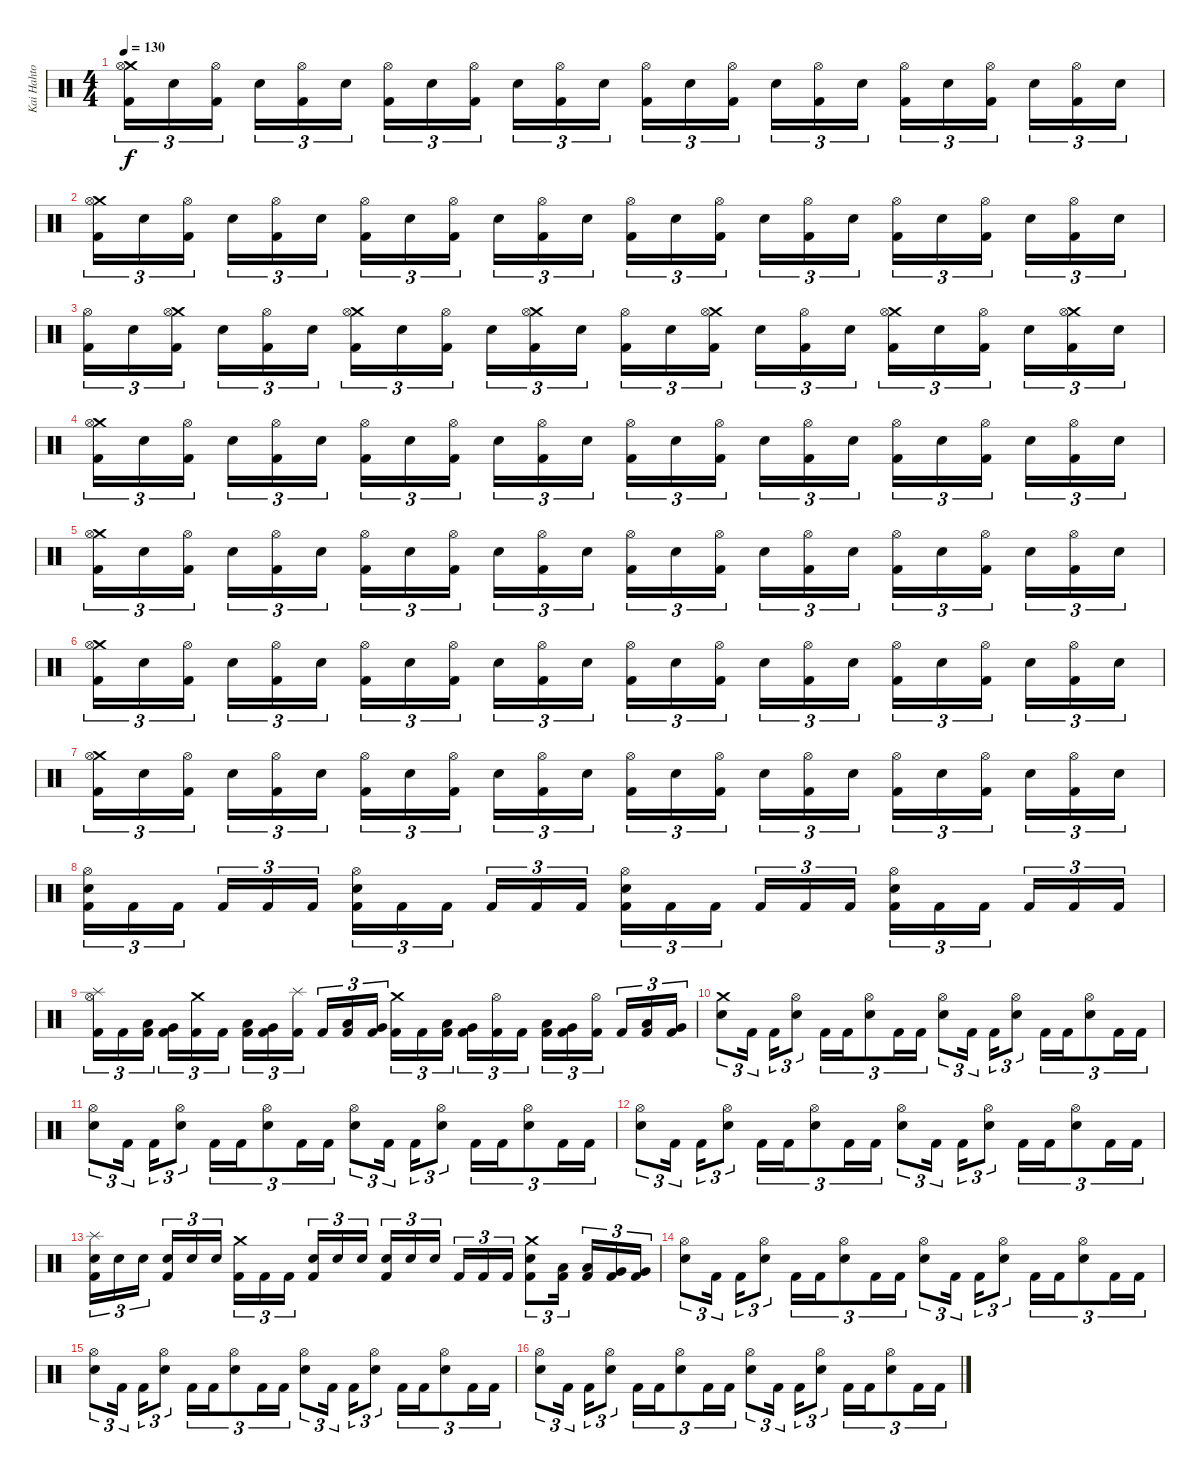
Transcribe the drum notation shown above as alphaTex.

\track ("Kai Hahto" "Kai Hahto") {instrument percussion}
\staff {score}
\articulation defaults
\ts (4 4)
\tempo 130
\clef neutral
\ks c
("Crash medium (hit)" "Hi-Hat (open)" "Kick (hit) 2").16{tu (3 2) dy f} "Snare (hit) 2".16{tu (3 2)} ("Hi-Hat (open)" "Kick (hit) 2").16{tu (3 2) beam splitsecondary} "Snare (hit) 2".16{tu (3 2)} ("Hi-Hat (open)" "Kick (hit) 2").16{tu (3 2)} "Snare (hit) 2".16{tu (3 2)} ("Hi-Hat (open)" "Kick (hit) 2").16{tu (3 2)} "Snare (hit) 2".16{tu (3 2)} ("Hi-Hat (open)" "Kick (hit) 2").16{tu (3 2) beam splitsecondary} "Snare (hit) 2".16{tu (3 2)} ("Hi-Hat (open)" "Kick (hit) 2").16{tu (3 2)} "Snare (hit) 2".16{tu (3 2)} ("Hi-Hat (open)" "Kick (hit) 2").16{tu (3 2)} "Snare (hit) 2".16{tu (3 2)} ("Hi-Hat (open)" "Kick (hit) 2").16{tu (3 2) beam splitsecondary} "Snare (hit) 2".16{tu (3 2)} ("Hi-Hat (open)" "Kick (hit) 2").16{tu (3 2)} "Snare (hit) 2".16{tu (3 2)} ("Hi-Hat (open)" "Kick (hit) 2").16{tu (3 2)} "Snare (hit) 2".16{tu (3 2)} ("Hi-Hat (open)" "Kick (hit) 2").16{tu (3 2) beam splitsecondary} "Snare (hit) 2".16{tu (3 2)} ("Hi-Hat (open)" "Kick (hit) 2").16{tu (3 2)} "Snare (hit) 2".16{tu (3 2)} |
("Crash medium (hit)" "Hi-Hat (open)" "Kick (hit) 2").16{tu (3 2)} "Snare (hit) 2".16{tu (3 2)} ("Hi-Hat (open)" "Kick (hit) 2").16{tu (3 2) beam splitsecondary} "Snare (hit) 2".16{tu (3 2)} ("Hi-Hat (open)" "Kick (hit) 2").16{tu (3 2)} "Snare (hit) 2".16{tu (3 2)} ("Hi-Hat (open)" "Kick (hit) 2").16{tu (3 2)} "Snare (hit) 2".16{tu (3 2)} ("Hi-Hat (open)" "Kick (hit) 2").16{tu (3 2) beam splitsecondary} "Snare (hit) 2".16{tu (3 2)} ("Hi-Hat (open)" "Kick (hit) 2").16{tu (3 2)} "Snare (hit) 2".16{tu (3 2)} ("Hi-Hat (open)" "Kick (hit) 2").16{tu (3 2)} "Snare (hit) 2".16{tu (3 2)} ("Hi-Hat (open)" "Kick (hit) 2").16{tu (3 2) beam splitsecondary} "Snare (hit) 2".16{tu (3 2)} ("Hi-Hat (open)" "Kick (hit) 2").16{tu (3 2)} "Snare (hit) 2".16{tu (3 2)} ("Hi-Hat (open)" "Kick (hit) 2").16{tu (3 2)} "Snare (hit) 2".16{tu (3 2)} ("Hi-Hat (open)" "Kick (hit) 2").16{tu (3 2) beam splitsecondary} "Snare (hit) 2".16{tu (3 2)} ("Hi-Hat (open)" "Kick (hit) 2").16{tu (3 2)} "Snare (hit) 2".16{tu (3 2)} |
("Hi-Hat (open)" "Kick (hit) 2").16{tu (3 2)} "Snare (hit) 2".16{tu (3 2)} ("Crash medium (hit)" "Hi-Hat (open)" "Kick (hit) 2").16{tu (3 2) beam splitsecondary} "Snare (hit) 2".16{tu (3 2)} ("Hi-Hat (open)" "Kick (hit) 2").16{tu (3 2)} "Snare (hit) 2".16{tu (3 2)} ("Crash medium (hit)" "Hi-Hat (open)" "Kick (hit) 2").16{tu (3 2)} "Snare (hit) 2".16{tu (3 2)} ("Hi-Hat (open)" "Kick (hit) 2").16{tu (3 2) beam splitsecondary} "Snare (hit) 2".16{tu (3 2)} ("Crash medium (hit)" "Hi-Hat (open)" "Kick (hit) 2").16{tu (3 2)} "Snare (hit) 2".16{tu (3 2)} ("Hi-Hat (open)" "Kick (hit) 2").16{tu (3 2)} "Snare (hit) 2".16{tu (3 2)} ("Crash medium (hit)" "Hi-Hat (open)" "Kick (hit) 2").16{tu (3 2) beam splitsecondary} "Snare (hit) 2".16{tu (3 2)} ("Hi-Hat (open)" "Kick (hit) 2").16{tu (3 2)} "Snare (hit) 2".16{tu (3 2)} ("Crash medium (hit)" "Hi-Hat (open)" "Kick (hit) 2").16{tu (3 2)} "Snare (hit) 2".16{tu (3 2)} ("Hi-Hat (open)" "Kick (hit) 2").16{tu (3 2) beam splitsecondary} "Snare (hit) 2".16{tu (3 2)} ("Crash medium (hit)" "Hi-Hat (open)" "Kick (hit) 2").16{tu (3 2)} "Snare (hit) 2".16{tu (3 2)} |
("Crash medium (hit)" "Hi-Hat (open)" "Kick (hit) 2").16{tu (3 2)} "Snare (hit) 2".16{tu (3 2)} ("Hi-Hat (open)" "Kick (hit) 2").16{tu (3 2) beam splitsecondary} "Snare (hit) 2".16{tu (3 2)} ("Hi-Hat (open)" "Kick (hit) 2").16{tu (3 2)} "Snare (hit) 2".16{tu (3 2)} ("Hi-Hat (open)" "Kick (hit) 2").16{tu (3 2)} "Snare (hit) 2".16{tu (3 2)} ("Hi-Hat (open)" "Kick (hit) 2").16{tu (3 2) beam splitsecondary} "Snare (hit) 2".16{tu (3 2)} ("Hi-Hat (open)" "Kick (hit) 2").16{tu (3 2)} "Snare (hit) 2".16{tu (3 2)} ("Hi-Hat (open)" "Kick (hit) 2").16{tu (3 2)} "Snare (hit) 2".16{tu (3 2)} ("Hi-Hat (open)" "Kick (hit) 2").16{tu (3 2) beam splitsecondary} "Snare (hit) 2".16{tu (3 2)} ("Hi-Hat (open)" "Kick (hit) 2").16{tu (3 2)} "Snare (hit) 2".16{tu (3 2)} ("Hi-Hat (open)" "Kick (hit) 2").16{tu (3 2)} "Snare (hit) 2".16{tu (3 2)} ("Hi-Hat (open)" "Kick (hit) 2").16{tu (3 2) beam splitsecondary} "Snare (hit) 2".16{tu (3 2)} ("Hi-Hat (open)" "Kick (hit) 2").16{tu (3 2)} "Snare (hit) 2".16{tu (3 2)} |
("Crash medium (hit)" "Hi-Hat (open)" "Kick (hit) 2").16{tu (3 2)} "Snare (hit) 2".16{tu (3 2)} ("Hi-Hat (open)" "Kick (hit) 2").16{tu (3 2) beam splitsecondary} "Snare (hit) 2".16{tu (3 2)} ("Hi-Hat (open)" "Kick (hit) 2").16{tu (3 2)} "Snare (hit) 2".16{tu (3 2)} ("Hi-Hat (open)" "Kick (hit) 2").16{tu (3 2)} "Snare (hit) 2".16{tu (3 2)} ("Hi-Hat (open)" "Kick (hit) 2").16{tu (3 2) beam splitsecondary} "Snare (hit) 2".16{tu (3 2)} ("Hi-Hat (open)" "Kick (hit) 2").16{tu (3 2)} "Snare (hit) 2".16{tu (3 2)} ("Hi-Hat (open)" "Kick (hit) 2").16{tu (3 2)} "Snare (hit) 2".16{tu (3 2)} ("Hi-Hat (open)" "Kick (hit) 2").16{tu (3 2) beam splitsecondary} "Snare (hit) 2".16{tu (3 2)} ("Hi-Hat (open)" "Kick (hit) 2").16{tu (3 2)} "Snare (hit) 2".16{tu (3 2)} ("Hi-Hat (open)" "Kick (hit) 2").16{tu (3 2)} "Snare (hit) 2".16{tu (3 2)} ("Hi-Hat (open)" "Kick (hit) 2").16{tu (3 2) beam splitsecondary} "Snare (hit) 2".16{tu (3 2)} ("Hi-Hat (open)" "Kick (hit) 2").16{tu (3 2)} "Snare (hit) 2".16{tu (3 2)} |
("Crash medium (hit)" "Hi-Hat (open)" "Kick (hit) 2").16{tu (3 2)} "Snare (hit) 2".16{tu (3 2)} ("Hi-Hat (open)" "Kick (hit) 2").16{tu (3 2) beam splitsecondary} "Snare (hit) 2".16{tu (3 2)} ("Hi-Hat (open)" "Kick (hit) 2").16{tu (3 2)} "Snare (hit) 2".16{tu (3 2)} ("Hi-Hat (open)" "Kick (hit) 2").16{tu (3 2)} "Snare (hit) 2".16{tu (3 2)} ("Hi-Hat (open)" "Kick (hit) 2").16{tu (3 2) beam splitsecondary} "Snare (hit) 2".16{tu (3 2)} ("Hi-Hat (open)" "Kick (hit) 2").16{tu (3 2)} "Snare (hit) 2".16{tu (3 2)} ("Hi-Hat (open)" "Kick (hit) 2").16{tu (3 2)} "Snare (hit) 2".16{tu (3 2)} ("Hi-Hat (open)" "Kick (hit) 2").16{tu (3 2) beam splitsecondary} "Snare (hit) 2".16{tu (3 2)} ("Hi-Hat (open)" "Kick (hit) 2").16{tu (3 2)} "Snare (hit) 2".16{tu (3 2)} ("Hi-Hat (open)" "Kick (hit) 2").16{tu (3 2)} "Snare (hit) 2".16{tu (3 2)} ("Hi-Hat (open)" "Kick (hit) 2").16{tu (3 2) beam splitsecondary} "Snare (hit) 2".16{tu (3 2)} ("Hi-Hat (open)" "Kick (hit) 2").16{tu (3 2)} "Snare (hit) 2".16{tu (3 2)} |
("Crash medium (hit)" "Hi-Hat (open)" "Kick (hit) 2").16{tu (3 2)} "Snare (hit) 2".16{tu (3 2)} ("Hi-Hat (open)" "Kick (hit) 2").16{tu (3 2) beam splitsecondary} "Snare (hit) 2".16{tu (3 2)} ("Hi-Hat (open)" "Kick (hit) 2").16{tu (3 2)} "Snare (hit) 2".16{tu (3 2)} ("Hi-Hat (open)" "Kick (hit) 2").16{tu (3 2)} "Snare (hit) 2".16{tu (3 2)} ("Hi-Hat (open)" "Kick (hit) 2").16{tu (3 2) beam splitsecondary} "Snare (hit) 2".16{tu (3 2)} ("Hi-Hat (open)" "Kick (hit) 2").16{tu (3 2)} "Snare (hit) 2".16{tu (3 2)} ("Hi-Hat (open)" "Kick (hit) 2").16{tu (3 2)} "Snare (hit) 2".16{tu (3 2)} ("Hi-Hat (open)" "Kick (hit) 2").16{tu (3 2) beam splitsecondary} "Snare (hit) 2".16{tu (3 2)} ("Hi-Hat (open)" "Kick (hit) 2").16{tu (3 2)} "Snare (hit) 2".16{tu (3 2)} ("Hi-Hat (open)" "Kick (hit) 2").16{tu (3 2)} "Snare (hit) 2".16{tu (3 2)} ("Hi-Hat (open)" "Kick (hit) 2").16{tu (3 2) beam splitsecondary} "Snare (hit) 2".16{tu (3 2)} ("Hi-Hat (open)" "Kick (hit) 2").16{tu (3 2)} "Snare (hit) 2".16{tu (3 2)} |
("Hi-Hat (open)" "Snare (hit) 2" "Kick (hit) 2").16{tu (3 2)} "Kick (hit) 2".16{tu (3 2)} "Kick (hit) 2".16{tu (3 2) beam splitsecondary} "Kick (hit) 2".16{tu (3 2)} "Kick (hit) 2".16{tu (3 2)} "Kick (hit) 2".16{tu (3 2)} ("Hi-Hat (open)" "Snare (hit) 2" "Kick (hit) 2").16{tu (3 2)} "Kick (hit) 2".16{tu (3 2)} "Kick (hit) 2".16{tu (3 2) beam splitsecondary} "Kick (hit) 2".16{tu (3 2)} "Kick (hit) 2".16{tu (3 2)} "Kick (hit) 2".16{tu (3 2)} ("Hi-Hat (open)" "Snare (hit) 2" "Kick (hit) 2").16{tu (3 2)} "Kick (hit) 2".16{tu (3 2)} "Kick (hit) 2".16{tu (3 2) beam splitsecondary} "Kick (hit) 2".16{tu (3 2)} "Kick (hit) 2".16{tu (3 2)} "Kick (hit) 2".16{tu (3 2)} ("Hi-Hat (open)" "Snare (hit) 2" "Kick (hit) 2").16{tu (3 2)} "Kick (hit) 2".16{tu (3 2)} "Kick (hit) 2".16{tu (3 2) beam splitsecondary} "Kick (hit) 2".16{tu (3 2)} "Kick (hit) 2".16{tu (3 2)} "Kick (hit) 2".16{tu (3 2)} |
("Splash (hit)" "Hi-Hat (open)" "Kick (hit) 2").16{tu (3 2)} "Kick (hit) 2".16{tu (3 2)} ("Low Tom (hit)" "Kick (hit) 2").16{tu (3 2) beam splitsecondary} ("Very Low Tom (hit)" "Kick (hit) 2").16{tu (3 2)} ("Crash medium (hit)" "Kick (hit) 2").16{tu (3 2)} "Kick (hit) 2".16{tu (3 2)} ("Low Tom (hit)" "Kick (hit) 2").16{tu (3 2)} ("Very Low Tom (hit)" "Kick (hit) 2").16{tu (3 2)} ("Splash (hit)" "Kick (hit) 2").16{tu (3 2) beam splitsecondary} "Kick (hit) 2".16{tu (3 2)} ("Low Tom (hit)" "Kick (hit) 2").16{tu (3 2)} ("Very Low Tom (hit)" "Kick (hit) 2").16{tu (3 2)} ("Crash medium (hit)" "Kick (hit) 2").16{tu (3 2)} "Kick (hit) 2".16{tu (3 2)} ("Low Tom (hit)" "Kick (hit) 2").16{tu (3 2) beam splitsecondary} ("Very Low Tom (hit)" "Kick (hit) 2").16{tu (3 2)} ("Hi-Hat (open)" "Kick (hit) 2").16{tu (3 2)} "Kick (hit) 2".16{tu (3 2)} ("Low Tom (hit)" "Kick (hit) 2").16{tu (3 2)} ("Very Low Tom (hit)" "Kick (hit) 2").16{tu (3 2)} ("Hi-Hat (open)" "Kick (hit) 2").16{tu (3 2) beam splitsecondary} "Kick (hit) 2".16{tu (3 2)} ("Low Tom (hit)" "Kick (hit) 2").16{tu (3 2)} ("Very Low Tom (hit)" "Kick (hit) 2").16{tu (3 2)} |
("Crash medium (hit)" "Snare (hit) 2").8{tu (3 2)} "Kick (hit) 2".16{tu (3 2) beam splitsecondary} "Kick (hit) 2".16{tu (3 2)} ("Hi-Hat (open)" "Snare (hit) 2").8{tu (3 2)} "Kick (hit) 2".16{tu (3 2)} "Kick (hit) 2".16{tu (3 2)} ("Hi-Hat (open)" "Snare (hit) 2").8{tu (3 2)} "Kick (hit) 2".16{tu (3 2)} "Kick (hit) 2".16{tu (3 2)} ("Hi-Hat (open)" "Snare (hit) 2").8{tu (3 2)} "Kick (hit) 2".16{tu (3 2) beam splitsecondary} "Kick (hit) 2".16{tu (3 2)} ("Hi-Hat (open)" "Snare (hit) 2").8{tu (3 2)} "Kick (hit) 2".16{tu (3 2)} "Kick (hit) 2".16{tu (3 2)} ("Hi-Hat (open)" "Snare (hit) 2").8{tu (3 2)} "Kick (hit) 2".16{tu (3 2)} "Kick (hit) 2".16{tu (3 2)} |
("Hi-Hat (open)" "Snare (hit) 2").8{tu (3 2)} "Kick (hit) 2".16{tu (3 2) beam splitsecondary} "Kick (hit) 2".16{tu (3 2)} ("Hi-Hat (open)" "Snare (hit) 2").8{tu (3 2)} "Kick (hit) 2".16{tu (3 2)} "Kick (hit) 2".16{tu (3 2)} ("Hi-Hat (open)" "Snare (hit) 2").8{tu (3 2)} "Kick (hit) 2".16{tu (3 2)} "Kick (hit) 2".16{tu (3 2)} ("Hi-Hat (open)" "Snare (hit) 2").8{tu (3 2)} "Kick (hit) 2".16{tu (3 2) beam splitsecondary} "Kick (hit) 2".16{tu (3 2)} ("Hi-Hat (open)" "Snare (hit) 2").8{tu (3 2)} "Kick (hit) 2".16{tu (3 2)} "Kick (hit) 2".16{tu (3 2)} ("Hi-Hat (open)" "Snare (hit) 2").8{tu (3 2)} "Kick (hit) 2".16{tu (3 2)} "Kick (hit) 2".16{tu (3 2)} |
("Hi-Hat (open)" "Snare (hit) 2").8{tu (3 2)} "Kick (hit) 2".16{tu (3 2) beam splitsecondary} "Kick (hit) 2".16{tu (3 2)} ("Hi-Hat (open)" "Snare (hit) 2").8{tu (3 2)} "Kick (hit) 2".16{tu (3 2)} "Kick (hit) 2".16{tu (3 2)} ("Hi-Hat (open)" "Snare (hit) 2").8{tu (3 2)} "Kick (hit) 2".16{tu (3 2)} "Kick (hit) 2".16{tu (3 2)} ("Hi-Hat (open)" "Snare (hit) 2").8{tu (3 2)} "Kick (hit) 2".16{tu (3 2) beam splitsecondary} "Kick (hit) 2".16{tu (3 2)} ("Hi-Hat (open)" "Snare (hit) 2").8{tu (3 2)} "Kick (hit) 2".16{tu (3 2)} "Kick (hit) 2".16{tu (3 2)} ("Hi-Hat (open)" "Snare (hit) 2").8{tu (3 2)} "Kick (hit) 2".16{tu (3 2)} "Kick (hit) 2".16{tu (3 2)} |
("Splash (hit)" "Snare (hit) 2" "Kick (hit) 2").16{tu (3 2)} "Snare (hit) 2".16{tu (3 2)} "Snare (hit) 2".16{tu (3 2) beam splitsecondary} ("Snare (hit) 2" "Kick (hit) 2").16{tu (3 2)} "Snare (hit) 2".16{tu (3 2)} "Snare (hit) 2".16{tu (3 2)} ("Crash medium (hit)" "Kick (hit) 2").16{tu (3 2)} "Kick (hit) 2".16{tu (3 2)} "Kick (hit) 2".16{tu (3 2) beam splitsecondary} ("Snare (hit) 2" "Kick (hit) 2").16{tu (3 2)} "Snare (hit) 2".16{tu (3 2)} "Snare (hit) 2".16{tu (3 2)} ("Snare (hit) 2" "Kick (hit) 2").16{tu (3 2)} "Snare (hit) 2".16{tu (3 2)} "Snare (hit) 2".16{tu (3 2) beam splitsecondary} "Kick (hit) 2".16{tu (3 2)} "Kick (hit) 2".16{tu (3 2)} "Kick (hit) 2".16{tu (3 2)} ("Crash medium (hit)" "Snare (hit) 2" "Kick (hit) 2").8{tu (3 2)} ("Low Tom (hit)" "Kick (hit) 2").16{tu (3 2) beam splitsecondary} ("Low Tom (hit)" "Kick (hit) 2").16{tu (3 2)} ("Very Low Tom (hit)" "Kick (hit) 2").16{tu (3 2)} ("Very Low Tom (hit)" "Kick (hit) 2").16{tu (3 2)} |
("Hi-Hat (open)" "Snare (hit) 2").8{tu (3 2)} "Kick (hit) 2".16{tu (3 2) beam splitsecondary} "Kick (hit) 2".16{tu (3 2)} ("Hi-Hat (open)" "Snare (hit) 2").8{tu (3 2)} "Kick (hit) 2".16{tu (3 2)} "Kick (hit) 2".16{tu (3 2)} ("Hi-Hat (open)" "Snare (hit) 2").8{tu (3 2)} "Kick (hit) 2".16{tu (3 2)} "Kick (hit) 2".16{tu (3 2)} ("Hi-Hat (open)" "Snare (hit) 2").8{tu (3 2)} "Kick (hit) 2".16{tu (3 2) beam splitsecondary} "Kick (hit) 2".16{tu (3 2)} ("Hi-Hat (open)" "Snare (hit) 2").8{tu (3 2)} "Kick (hit) 2".16{tu (3 2)} "Kick (hit) 2".16{tu (3 2)} ("Hi-Hat (open)" "Snare (hit) 2").8{tu (3 2)} "Kick (hit) 2".16{tu (3 2)} "Kick (hit) 2".16{tu (3 2)} |
("Hi-Hat (open)" "Snare (hit) 2").8{tu (3 2)} "Kick (hit) 2".16{tu (3 2) beam splitsecondary} "Kick (hit) 2".16{tu (3 2)} ("Hi-Hat (open)" "Snare (hit) 2").8{tu (3 2)} "Kick (hit) 2".16{tu (3 2)} "Kick (hit) 2".16{tu (3 2)} ("Hi-Hat (open)" "Snare (hit) 2").8{tu (3 2)} "Kick (hit) 2".16{tu (3 2)} "Kick (hit) 2".16{tu (3 2)} ("Hi-Hat (open)" "Snare (hit) 2").8{tu (3 2)} "Kick (hit) 2".16{tu (3 2) beam splitsecondary} "Kick (hit) 2".16{tu (3 2)} ("Hi-Hat (open)" "Snare (hit) 2").8{tu (3 2)} "Kick (hit) 2".16{tu (3 2)} "Kick (hit) 2".16{tu (3 2)} ("Hi-Hat (open)" "Snare (hit) 2").8{tu (3 2)} "Kick (hit) 2".16{tu (3 2)} "Kick (hit) 2".16{tu (3 2)} |
("Hi-Hat (open)" "Snare (hit) 2").8{tu (3 2)} "Kick (hit) 2".16{tu (3 2) beam splitsecondary} "Kick (hit) 2".16{tu (3 2)} ("Hi-Hat (open)" "Snare (hit) 2").8{tu (3 2)} "Kick (hit) 2".16{tu (3 2)} "Kick (hit) 2".16{tu (3 2)} ("Hi-Hat (open)" "Snare (hit) 2").8{tu (3 2)} "Kick (hit) 2".16{tu (3 2)} "Kick (hit) 2".16{tu (3 2)} ("Hi-Hat (open)" "Snare (hit) 2").8{tu (3 2)} "Kick (hit) 2".16{tu (3 2) beam splitsecondary} "Kick (hit) 2".16{tu (3 2)} ("Hi-Hat (open)" "Snare (hit) 2").8{tu (3 2)} "Kick (hit) 2".16{tu (3 2)} "Kick (hit) 2".16{tu (3 2)} ("Hi-Hat (open)" "Snare (hit) 2").8{tu (3 2)} "Kick (hit) 2".16{tu (3 2)} "Kick (hit) 2".16{tu (3 2)}
